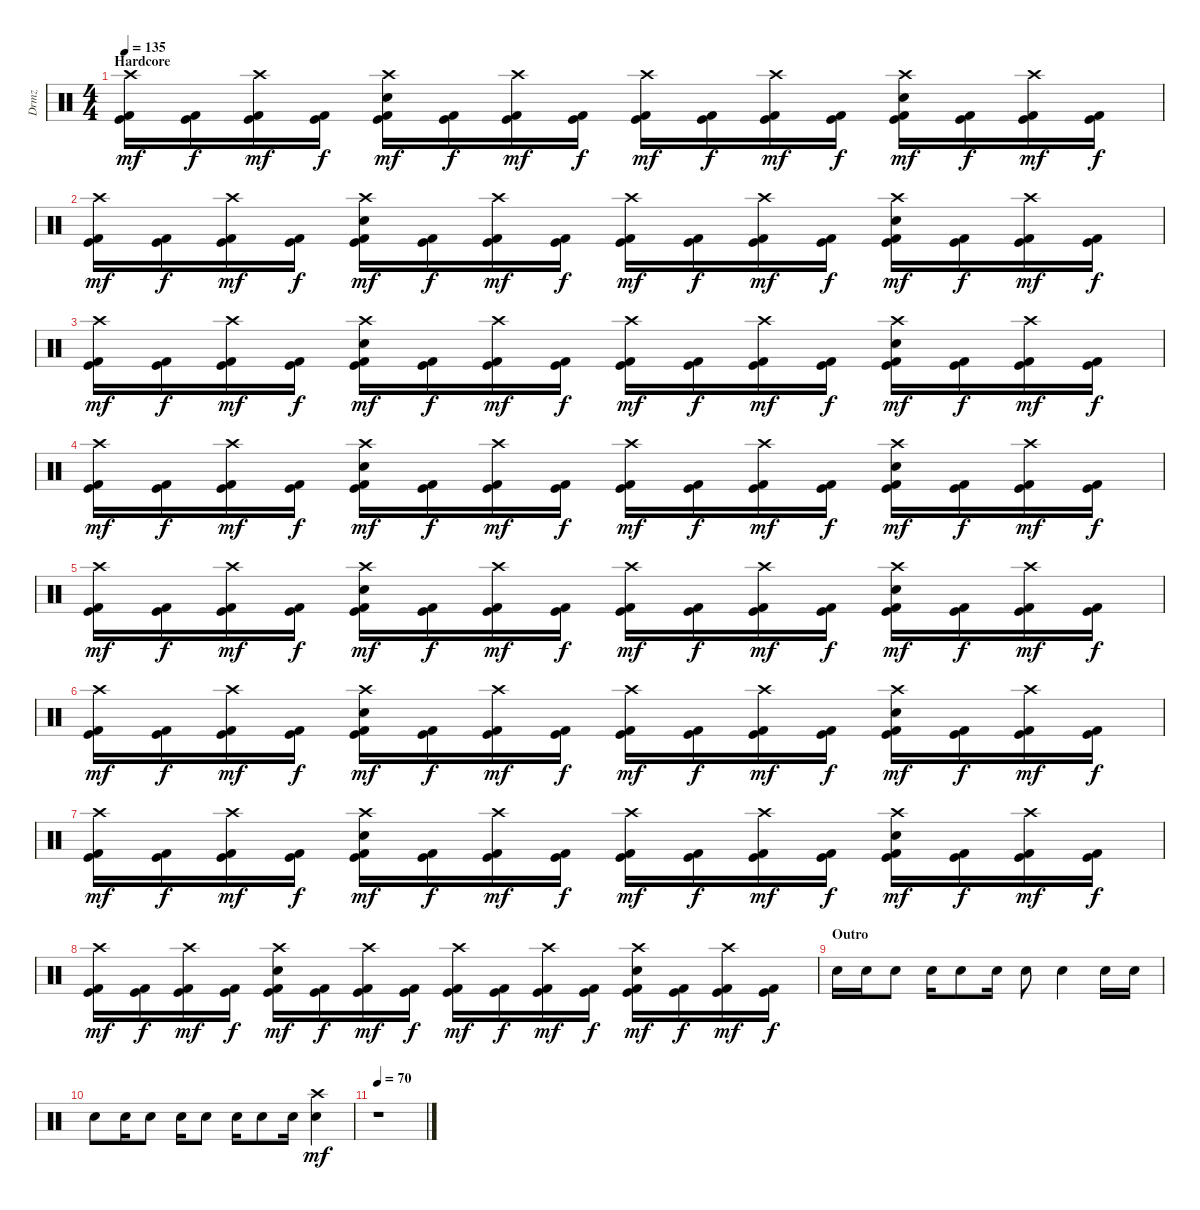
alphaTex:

\track ("Drmz" "Drmz") {instrument percussion}
\staff {score}
\articulation defaults
\ts (4 4)
\section ("" "Hardcore")
\tempo 135
\clef neutral
\ks c
("Kick (hit) 2" "Kick (hit)" "Crash high (hit)").16{dy mf} ("Kick (hit) 2" "Kick (hit)").16{dy f} ("Kick (hit) 2" "Kick (hit)" "Crash high (hit)").16{dy mf} ("Kick (hit) 2" "Kick (hit)").16{dy f} ("Kick (hit) 2" "Kick (hit)" "Crash high (hit)" "Snare (hit) 2").16{dy mf} ("Kick (hit) 2" "Kick (hit)").16{dy f} ("Kick (hit) 2" "Kick (hit)" "Crash high (hit)").16{dy mf} ("Kick (hit) 2" "Kick (hit)").16{dy f} ("Kick (hit) 2" "Kick (hit)" "Crash high (hit)").16{dy mf} ("Kick (hit) 2" "Kick (hit)").16{dy f} ("Kick (hit) 2" "Kick (hit)" "Crash high (hit)").16{dy mf} ("Kick (hit) 2" "Kick (hit)").16{dy f} ("Kick (hit) 2" "Kick (hit)" "Crash high (hit)" "Snare (hit) 2").16{dy mf} ("Kick (hit) 2" "Kick (hit)").16{dy f} ("Kick (hit) 2" "Kick (hit)" "Crash high (hit)").16{dy mf} ("Kick (hit) 2" "Kick (hit)").16{dy f} |
("Kick (hit) 2" "Kick (hit)" "Crash high (hit)").16{dy mf} ("Kick (hit) 2" "Kick (hit)").16{dy f} ("Kick (hit) 2" "Kick (hit)" "Crash high (hit)").16{dy mf} ("Kick (hit) 2" "Kick (hit)").16{dy f} ("Kick (hit) 2" "Kick (hit)" "Crash high (hit)" "Snare (hit) 2").16{dy mf} ("Kick (hit) 2" "Kick (hit)").16{dy f} ("Kick (hit) 2" "Kick (hit)" "Crash high (hit)").16{dy mf} ("Kick (hit) 2" "Kick (hit)").16{dy f} ("Kick (hit) 2" "Kick (hit)" "Crash high (hit)").16{dy mf} ("Kick (hit) 2" "Kick (hit)").16{dy f} ("Kick (hit) 2" "Kick (hit)" "Crash high (hit)").16{dy mf} ("Kick (hit) 2" "Kick (hit)").16{dy f} ("Kick (hit) 2" "Kick (hit)" "Crash high (hit)" "Snare (hit) 2").16{dy mf} ("Kick (hit) 2" "Kick (hit)").16{dy f} ("Kick (hit) 2" "Kick (hit)" "Crash high (hit)").16{dy mf} ("Kick (hit) 2" "Kick (hit)").16{dy f} |
("Kick (hit) 2" "Kick (hit)" "Crash high (hit)").16{dy mf} ("Kick (hit) 2" "Kick (hit)").16{dy f} ("Kick (hit) 2" "Kick (hit)" "Crash high (hit)").16{dy mf} ("Kick (hit) 2" "Kick (hit)").16{dy f} ("Kick (hit) 2" "Kick (hit)" "Crash high (hit)" "Snare (hit) 2").16{dy mf} ("Kick (hit) 2" "Kick (hit)").16{dy f} ("Kick (hit) 2" "Kick (hit)" "Crash high (hit)").16{dy mf} ("Kick (hit) 2" "Kick (hit)").16{dy f} ("Kick (hit) 2" "Kick (hit)" "Crash high (hit)").16{dy mf} ("Kick (hit) 2" "Kick (hit)").16{dy f} ("Kick (hit) 2" "Kick (hit)" "Crash high (hit)").16{dy mf} ("Kick (hit) 2" "Kick (hit)").16{dy f} ("Kick (hit) 2" "Kick (hit)" "Crash high (hit)" "Snare (hit) 2").16{dy mf} ("Kick (hit) 2" "Kick (hit)").16{dy f} ("Kick (hit) 2" "Kick (hit)" "Crash high (hit)").16{dy mf} ("Kick (hit) 2" "Kick (hit)").16{dy f} |
("Kick (hit) 2" "Kick (hit)" "Crash high (hit)").16{dy mf} ("Kick (hit) 2" "Kick (hit)").16{dy f} ("Kick (hit) 2" "Kick (hit)" "Crash high (hit)").16{dy mf} ("Kick (hit) 2" "Kick (hit)").16{dy f} ("Kick (hit) 2" "Kick (hit)" "Crash high (hit)" "Snare (hit) 2").16{dy mf} ("Kick (hit) 2" "Kick (hit)").16{dy f} ("Kick (hit) 2" "Kick (hit)" "Crash high (hit)").16{dy mf} ("Kick (hit) 2" "Kick (hit)").16{dy f} ("Kick (hit) 2" "Kick (hit)" "Crash high (hit)").16{dy mf} ("Kick (hit) 2" "Kick (hit)").16{dy f} ("Kick (hit) 2" "Kick (hit)" "Crash high (hit)").16{dy mf} ("Kick (hit) 2" "Kick (hit)").16{dy f} ("Kick (hit) 2" "Kick (hit)" "Crash high (hit)" "Snare (hit) 2").16{dy mf} ("Kick (hit) 2" "Kick (hit)").16{dy f} ("Kick (hit) 2" "Kick (hit)" "Crash high (hit)").16{dy mf} ("Kick (hit) 2" "Kick (hit)").16{dy f} |
("Kick (hit) 2" "Kick (hit)" "Crash high (hit)").16{dy mf} ("Kick (hit) 2" "Kick (hit)").16{dy f} ("Kick (hit) 2" "Kick (hit)" "Crash high (hit)").16{dy mf} ("Kick (hit) 2" "Kick (hit)").16{dy f} ("Kick (hit) 2" "Kick (hit)" "Crash high (hit)" "Snare (hit) 2").16{dy mf} ("Kick (hit) 2" "Kick (hit)").16{dy f} ("Kick (hit) 2" "Kick (hit)" "Crash high (hit)").16{dy mf} ("Kick (hit) 2" "Kick (hit)").16{dy f} ("Kick (hit) 2" "Kick (hit)" "Crash high (hit)").16{dy mf} ("Kick (hit) 2" "Kick (hit)").16{dy f} ("Kick (hit) 2" "Kick (hit)" "Crash high (hit)").16{dy mf} ("Kick (hit) 2" "Kick (hit)").16{dy f} ("Kick (hit) 2" "Kick (hit)" "Crash high (hit)" "Snare (hit) 2").16{dy mf} ("Kick (hit) 2" "Kick (hit)").16{dy f} ("Kick (hit) 2" "Kick (hit)" "Crash high (hit)").16{dy mf} ("Kick (hit) 2" "Kick (hit)").16{dy f} |
("Kick (hit) 2" "Kick (hit)" "Crash high (hit)").16{dy mf} ("Kick (hit) 2" "Kick (hit)").16{dy f} ("Kick (hit) 2" "Kick (hit)" "Crash high (hit)").16{dy mf} ("Kick (hit) 2" "Kick (hit)").16{dy f} ("Kick (hit) 2" "Kick (hit)" "Crash high (hit)" "Snare (hit) 2").16{dy mf} ("Kick (hit) 2" "Kick (hit)").16{dy f} ("Kick (hit) 2" "Kick (hit)" "Crash high (hit)").16{dy mf} ("Kick (hit) 2" "Kick (hit)").16{dy f} ("Kick (hit) 2" "Kick (hit)" "Crash high (hit)").16{dy mf} ("Kick (hit) 2" "Kick (hit)").16{dy f} ("Kick (hit) 2" "Kick (hit)" "Crash high (hit)").16{dy mf} ("Kick (hit) 2" "Kick (hit)").16{dy f} ("Kick (hit) 2" "Kick (hit)" "Crash high (hit)" "Snare (hit) 2").16{dy mf} ("Kick (hit) 2" "Kick (hit)").16{dy f} ("Kick (hit) 2" "Kick (hit)" "Crash high (hit)").16{dy mf} ("Kick (hit) 2" "Kick (hit)").16{dy f} |
("Kick (hit) 2" "Kick (hit)" "Crash high (hit)").16{dy mf} ("Kick (hit) 2" "Kick (hit)").16{dy f} ("Kick (hit) 2" "Kick (hit)" "Crash high (hit)").16{dy mf} ("Kick (hit) 2" "Kick (hit)").16{dy f} ("Kick (hit) 2" "Kick (hit)" "Crash high (hit)" "Snare (hit) 2").16{dy mf} ("Kick (hit) 2" "Kick (hit)").16{dy f} ("Kick (hit) 2" "Kick (hit)" "Crash high (hit)").16{dy mf} ("Kick (hit) 2" "Kick (hit)").16{dy f} ("Kick (hit) 2" "Kick (hit)" "Crash high (hit)").16{dy mf} ("Kick (hit) 2" "Kick (hit)").16{dy f} ("Kick (hit) 2" "Kick (hit)" "Crash high (hit)").16{dy mf} ("Kick (hit) 2" "Kick (hit)").16{dy f} ("Kick (hit) 2" "Kick (hit)" "Crash high (hit)" "Snare (hit) 2").16{dy mf} ("Kick (hit) 2" "Kick (hit)").16{dy f} ("Kick (hit) 2" "Kick (hit)" "Crash high (hit)").16{dy mf} ("Kick (hit) 2" "Kick (hit)").16{dy f} |
("Kick (hit) 2" "Kick (hit)" "Crash high (hit)").16{dy mf} ("Kick (hit) 2" "Kick (hit)").16{dy f} ("Kick (hit) 2" "Kick (hit)" "Crash high (hit)").16{dy mf} ("Kick (hit) 2" "Kick (hit)").16{dy f} ("Kick (hit) 2" "Kick (hit)" "Crash high (hit)" "Snare (hit) 2").16{dy mf} ("Kick (hit) 2" "Kick (hit)").16{dy f} ("Kick (hit) 2" "Kick (hit)" "Crash high (hit)").16{dy mf} ("Kick (hit) 2" "Kick (hit)").16{dy f} ("Kick (hit) 2" "Kick (hit)" "Crash high (hit)").16{dy mf} ("Kick (hit) 2" "Kick (hit)").16{dy f} ("Kick (hit) 2" "Kick (hit)" "Crash high (hit)").16{dy mf} ("Kick (hit) 2" "Kick (hit)").16{dy f} ("Kick (hit) 2" "Kick (hit)" "Crash high (hit)" "Snare (hit) 2").16{dy mf} ("Kick (hit) 2" "Kick (hit)").16{dy f} ("Kick (hit) 2" "Kick (hit)" "Crash high (hit)").16{dy mf} ("Kick (hit) 2" "Kick (hit)").16{dy f} |
\section ("" "Outro")
"Snare (hit) 2".16 "Snare (hit) 2".16 "Snare (hit) 2".8 "Snare (hit) 2".16 "Snare (hit) 2".8 "Snare (hit) 2".16 "Snare (hit) 2".8 "Snare (hit) 2".4 "Snare (hit) 2".16 "Snare (hit) 2".16 |
"Snare (hit) 2".8 "Snare (hit) 2".16 "Snare (hit) 2".8 "Snare (hit) 2".16 "Snare (hit) 2".8 "Snare (hit) 2".16 "Snare (hit) 2".8 "Snare (hit) 2".16 ("Snare (hit) 2" "Crash high (hit)").4{dy mf} |
\tempo 70
r.1
